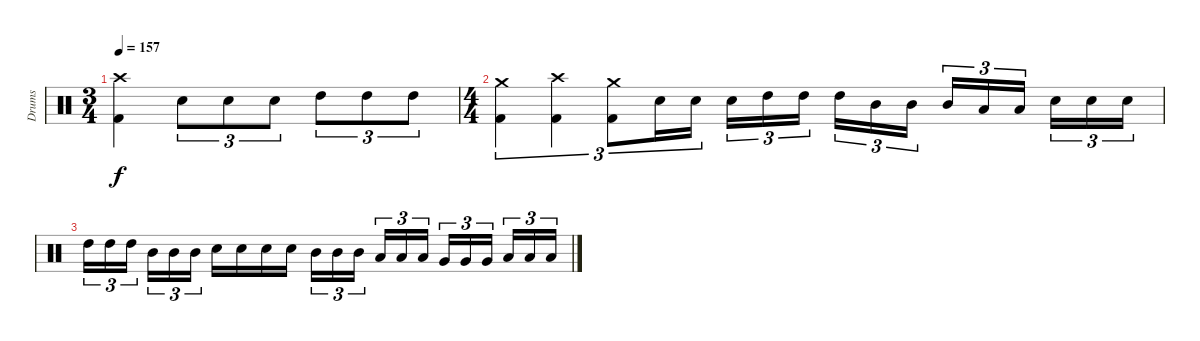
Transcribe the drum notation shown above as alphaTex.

\track ("Drums" "Drums") {instrument percussion}
\staff {score}
\articulation defaults
\ts (3 4)
\tempo 157
\clef neutral
\ks c
("Kick (hit) 2" "Crash high (hit)").4{dy f} "Electric Snare (hit)".8{tu (3 2)} "Electric Snare (hit)".8{tu (3 2)} "Electric Snare (hit)".8{tu (3 2)} "High Tom (hit)".8{tu (3 2)} "High Tom (hit)".8{tu (3 2)} "High Tom (hit)".8{tu (3 2)} |
\ts (4 4)
("Kick (hit) 2" "Crash medium (hit)").4{tu (3 2)} ("Kick (hit) 2" "Crash high (hit)").4{tu (3 2)} ("Kick (hit) 2" "Crash medium (hit)").8{tu (3 2)} "Electric Snare (hit)".16{tu (3 2)} "Electric Snare (hit)".16{tu (3 2)} "Electric Snare (hit)".16{tu (3 2)} "High Tom (hit)".16{tu (3 2)} "High Tom (hit)".16{tu (3 2)} "High Tom (hit)".16{tu (3 2)} "Mid Tom (hit)".16{tu (3 2)} "Mid Tom (hit)".16{tu (3 2)} "Mid Tom (hit)".16{tu (3 2)} "Low Tom (hit)".16{tu (3 2)} "Low Tom (hit)".16{tu (3 2)} "Electric Snare (hit)".16{tu (3 2)} "Electric Snare (hit)".16{tu (3 2)} "Electric Snare (hit)".16{tu (3 2)} |
"High Tom (hit)".16{tu (3 2)} "High Tom (hit)".16{tu (3 2)} "High Tom (hit)".16{tu (3 2)} "Mid Tom (hit)".16{tu (3 2)} "Mid Tom (hit)".16{tu (3 2)} "Mid Tom (hit)".16{tu (3 2)} "Electric Snare (hit)".16 "Electric Snare (hit)".16 "Electric Snare (hit)".16 "Electric Snare (hit)".16 "Mid Tom (hit)".16{tu (3 2)} "Mid Tom (hit)".16{tu (3 2)} "Mid Tom (hit)".16{tu (3 2)} "Low Tom (hit)".16{tu (3 2)} "Low Tom (hit)".16{tu (3 2)} "Low Tom (hit)".16{tu (3 2)} "Very Low Tom (hit)".16{tu (3 2)} "Very Low Tom (hit)".16{tu (3 2)} "Very Low Tom (hit)".16{tu (3 2)} "Low Floor Tom (hit)".16{tu (3 2)} "Low Floor Tom (hit)".16{tu (3 2)} "Low Floor Tom (hit)".16{tu (3 2)}
